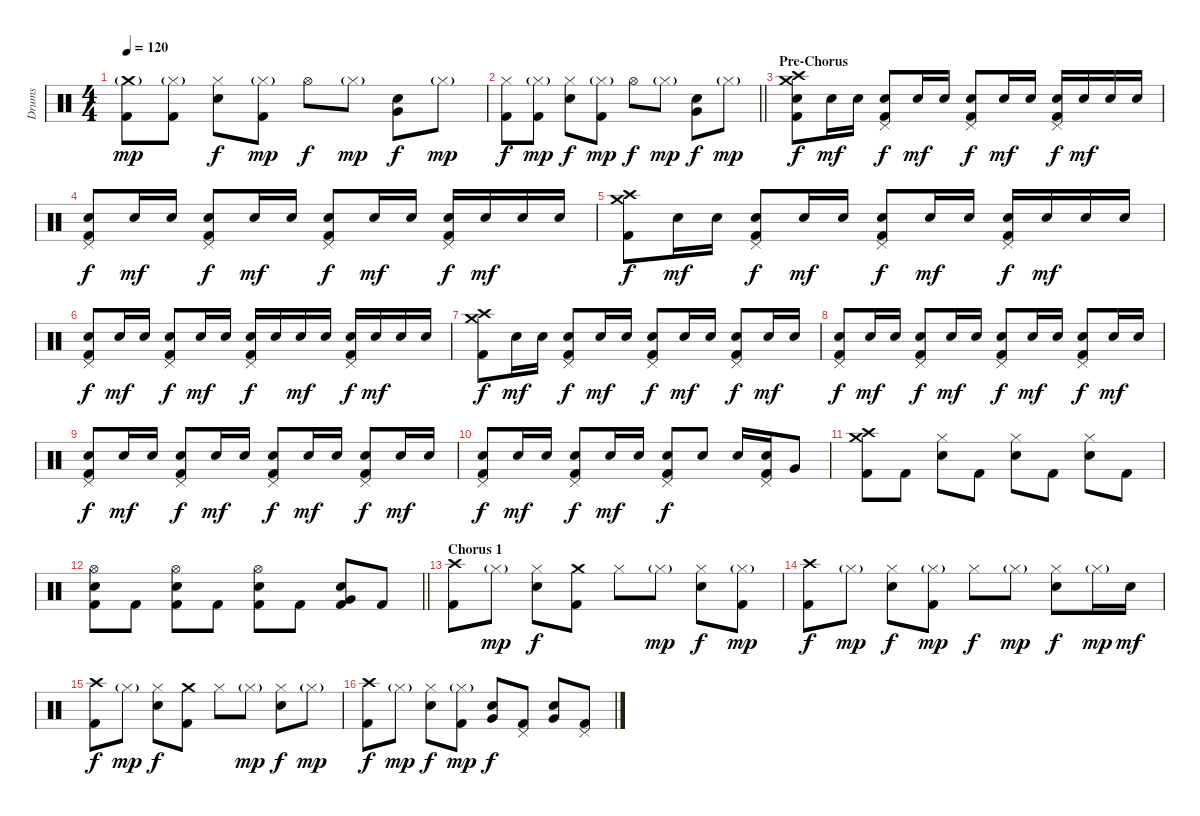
\track ("Drums" "Drums") {instrument percussion}
\staff {score}
\articulation defaults
\ts (4 4)
\tempo 120
\clef neutral
\ks c
("Crash medium (hit)"{g} "Kick (hit) 2").8{dy mp} ("Hi-Hat (closed)"{g} "Kick (hit) 2").8 ("Hi-Hat (closed)" "Electric Snare (hit)").8{dy f} ("Hi-Hat (closed)"{g} "Kick (hit) 2").8{dy mp} "Hi-Hat (open)".8{dy f} "Hi-Hat (closed)"{g}.8{dy mp} ("Very Low Tom (hit)" "Electric Snare (hit)").8{dy f} "Hi-Hat (closed)"{g}.8{dy mp} |
\barLineRight lightlight
("Hi-Hat (closed)" "Kick (hit) 2").8{dy f} ("Hi-Hat (closed)"{g} "Kick (hit) 2").8{dy mp} ("Hi-Hat (closed)" "Electric Snare (hit)").8{dy f} ("Hi-Hat (closed)"{g} "Kick (hit) 2").8{dy mp} "Hi-Hat (open)".8{dy f} "Hi-Hat (closed)"{g}.8{dy mp} ("Very Low Tom (hit)" "Electric Snare (hit)").8{dy f} "Hi-Hat (closed)"{g}.8{dy mp} |
\section ("" "Pre-Chorus")
("Crash high (hit)" "Crash medium (hit)" "Electric Snare (hit)" "Kick (hit) 2").8{dy f} "Electric Snare (hit)".16{dy mf} "Electric Snare (hit)".16 ("Pedal Hi-Hat (hit)" "Electric Snare (hit)" "Kick (hit) 2").8{dy f} "Electric Snare (hit)".16{dy mf} "Electric Snare (hit)".16 ("Pedal Hi-Hat (hit)" "Electric Snare (hit)" "Kick (hit) 2").8{dy f} "Electric Snare (hit)".16{dy mf} "Electric Snare (hit)".16 ("Pedal Hi-Hat (hit)" "Electric Snare (hit)" "Kick (hit) 2").16{dy f} "Electric Snare (hit)".16{dy mf} "Electric Snare (hit)".16 "Electric Snare (hit)".16 |
("Pedal Hi-Hat (hit)" "Electric Snare (hit)" "Kick (hit) 2").8{dy f} "Electric Snare (hit)".16{dy mf} "Electric Snare (hit)".16 ("Pedal Hi-Hat (hit)" "Electric Snare (hit)" "Kick (hit) 2").8{dy f} "Electric Snare (hit)".16{dy mf} "Electric Snare (hit)".16 ("Pedal Hi-Hat (hit)" "Electric Snare (hit)" "Kick (hit) 2").8{dy f} "Electric Snare (hit)".16{dy mf} "Electric Snare (hit)".16 ("Pedal Hi-Hat (hit)" "Electric Snare (hit)" "Kick (hit) 2").16{dy f} "Electric Snare (hit)".16{dy mf} "Electric Snare (hit)".16 "Electric Snare (hit)".16 |
("Crash high (hit)" "Crash medium (hit)" "Kick (hit) 2").8{dy f} "Electric Snare (hit)".16{dy mf} "Electric Snare (hit)".16 ("Pedal Hi-Hat (hit)" "Electric Snare (hit)" "Kick (hit) 2").8{dy f} "Electric Snare (hit)".16{dy mf} "Electric Snare (hit)".16 ("Pedal Hi-Hat (hit)" "Electric Snare (hit)" "Kick (hit) 2").8{dy f} "Electric Snare (hit)".16{dy mf} "Electric Snare (hit)".16 ("Pedal Hi-Hat (hit)" "Electric Snare (hit)" "Kick (hit) 2").16{dy f} "Electric Snare (hit)".16{dy mf} "Electric Snare (hit)".16 "Electric Snare (hit)".16 |
("Pedal Hi-Hat (hit)" "Electric Snare (hit)" "Kick (hit) 2").8{dy f} "Electric Snare (hit)".16{dy mf} "Electric Snare (hit)".16 ("Pedal Hi-Hat (hit)" "Electric Snare (hit)" "Kick (hit) 2").8{dy f} "Electric Snare (hit)".16{dy mf} "Electric Snare (hit)".16 ("Pedal Hi-Hat (hit)" "Electric Snare (hit)" "Kick (hit) 2").16{dy f} "Electric Snare (hit)".16 "Electric Snare (hit)".16{dy mf} "Electric Snare (hit)".16 ("Pedal Hi-Hat (hit)" "Electric Snare (hit)" "Kick (hit) 2").16{dy f} "Electric Snare (hit)".16{dy mf} "Electric Snare (hit)".16 "Electric Snare (hit)".16 |
("Crash medium (hit)" "Crash high (hit)" "Kick (hit) 2").8{dy f} "Electric Snare (hit)".16{dy mf} "Electric Snare (hit)".16 ("Pedal Hi-Hat (hit)" "Electric Snare (hit)" "Kick (hit) 2").8{dy f} "Electric Snare (hit)".16{dy mf} "Electric Snare (hit)".16 ("Pedal Hi-Hat (hit)" "Electric Snare (hit)" "Kick (hit) 2").8{dy f} "Electric Snare (hit)".16{dy mf} "Electric Snare (hit)".16 ("Pedal Hi-Hat (hit)" "Electric Snare (hit)" "Kick (hit) 2").8{dy f} "Electric Snare (hit)".16{dy mf} "Electric Snare (hit)".16 |
("Pedal Hi-Hat (hit)" "Electric Snare (hit)" "Kick (hit) 2").8{dy f} "Electric Snare (hit)".16{dy mf} "Electric Snare (hit)".16 ("Pedal Hi-Hat (hit)" "Electric Snare (hit)" "Kick (hit) 2").8{dy f} "Electric Snare (hit)".16{dy mf} "Electric Snare (hit)".16 ("Pedal Hi-Hat (hit)" "Electric Snare (hit)" "Kick (hit) 2").8{dy f} "Electric Snare (hit)".16{dy mf} "Electric Snare (hit)".16 ("Pedal Hi-Hat (hit)" "Electric Snare (hit)" "Kick (hit) 2").8{dy f} "Electric Snare (hit)".16{dy mf} "Electric Snare (hit)".16 |
("Pedal Hi-Hat (hit)" "Electric Snare (hit)" "Kick (hit) 2").8{dy f} "Electric Snare (hit)".16{dy mf} "Electric Snare (hit)".16 ("Pedal Hi-Hat (hit)" "Electric Snare (hit)" "Kick (hit) 2").8{dy f} "Electric Snare (hit)".16{dy mf} "Electric Snare (hit)".16 ("Pedal Hi-Hat (hit)" "Electric Snare (hit)" "Kick (hit) 2").8{dy f} "Electric Snare (hit)".16{dy mf} "Electric Snare (hit)".16 ("Pedal Hi-Hat (hit)" "Electric Snare (hit)" "Kick (hit) 2").8{dy f} "Electric Snare (hit)".16{dy mf} "Electric Snare (hit)".16 |
("Pedal Hi-Hat (hit)" "Electric Snare (hit)" "Kick (hit) 2").8{dy f} "Electric Snare (hit)".16{dy mf} "Electric Snare (hit)".16 ("Pedal Hi-Hat (hit)" "Electric Snare (hit)" "Kick (hit) 2").8{dy f} "Electric Snare (hit)".16{dy mf} "Electric Snare (hit)".16 ("Pedal Hi-Hat (hit)" "Electric Snare (hit)" "Kick (hit) 2").8{dy f} "Electric Snare (hit)".8 "Electric Snare (hit)".16 ("Pedal Hi-Hat (hit)" "Electric Snare (hit)" "Kick (hit) 2").16 "Very Low Tom (hit)".8 |
("Crash high (hit)" "Crash medium (hit)" "Kick (hit) 2").8 "Kick (hit) 2".8 ("Hi-Hat (closed)" "Electric Snare (hit)").8 "Kick (hit) 2".8 ("Hi-Hat (closed)" "Electric Snare (hit)").8 "Kick (hit) 2".8 ("Hi-Hat (closed)" "Electric Snare (hit)").8 "Kick (hit) 2".8 |
\barLineRight lightlight
("Hi-Hat (open)" "Electric Snare (hit)" "Kick (hit) 2").8 "Kick (hit) 2".8 ("Hi-Hat (open)" "Electric Snare (hit)" "Kick (hit) 2").8 "Kick (hit) 2".8 ("Hi-Hat (open)" "Electric Snare (hit)" "Kick (hit) 2").8 "Kick (hit) 2".8 ("Very Low Tom (hit)" "Electric Snare (hit)" "Kick (hit) 2").8 "Kick (hit) 2".8 |
\section ("" "Chorus 1")
("Crash high (hit)" "Kick (hit) 2").8 "Hi-Hat (closed)"{g}.8{dy mp} ("Hi-Hat (closed)" "Electric Snare (hit)").8{dy f} ("Crash medium (hit)" "Kick (hit) 2").8 "Hi-Hat (closed)".8 "Hi-Hat (closed)"{g}.8{dy mp} ("Hi-Hat (closed)" "Electric Snare (hit)").8{dy f} ("Hi-Hat (closed)"{g} "Kick (hit) 2").8{dy mp} |
("Crash high (hit)" "Kick (hit) 2").8{dy f} "Hi-Hat (closed)"{g}.8{dy mp} ("Hi-Hat (closed)" "Electric Snare (hit)").8{dy f} ("Hi-Hat (closed)"{g} "Kick (hit) 2").8{dy mp} "Hi-Hat (closed)".8{dy f} "Hi-Hat (closed)"{g}.8{dy mp} ("Hi-Hat (closed)" "Electric Snare (hit)").8{dy f} "Hi-Hat (closed)"{g}.16{dy mp} "Electric Snare (hit)".16{dy mf} |
("Crash high (hit)" "Kick (hit) 2").8{dy f} "Hi-Hat (closed)"{g}.8{dy mp} ("Hi-Hat (closed)" "Electric Snare (hit)").8{dy f} ("Crash medium (hit)" "Kick (hit) 2").8 "Hi-Hat (closed)".8 "Hi-Hat (closed)"{g}.8{dy mp} ("Hi-Hat (closed)" "Electric Snare (hit)").8{dy f} "Hi-Hat (closed)"{g}.8{dy mp} |
("Crash high (hit)" "Kick (hit) 2").8{dy f} "Hi-Hat (closed)"{g}.8{dy mp} ("Hi-Hat (closed)" "Electric Snare (hit)").8{dy f} ("Hi-Hat (closed)"{g} "Kick (hit) 2").8{dy mp} ("Very Low Tom (hit)" "Electric Snare (hit)").8{dy f} ("Pedal Hi-Hat (hit)" "Kick (hit) 2").8 ("Very Low Tom (hit)" "Electric Snare (hit)").8 ("Pedal Hi-Hat (hit)" "Kick (hit) 2").8
